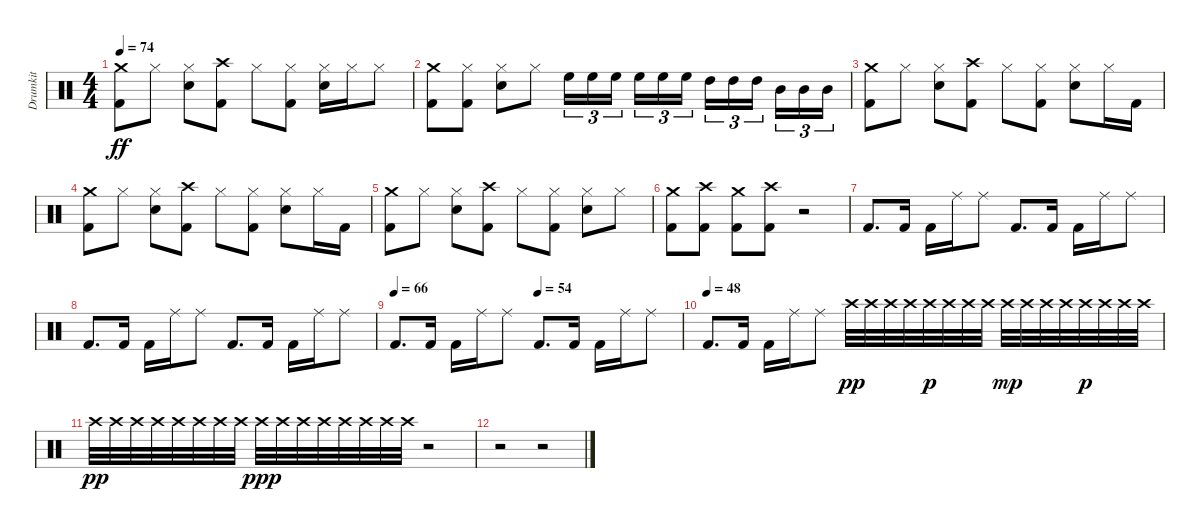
\track ("Drumkit" "Drumkit") {instrument percussion}
\staff {score}
\articulation defaults
\ts (4 4)
\tempo 74
\clef neutral
\ks c
("Crash medium (hit)" "Kick (hit) 2").8{dy ff} "Hi-Hat (closed)".8 ("Hi-Hat (closed)" "Snare (hit) 2").8 ("Crash high (hit)" "Kick (hit) 2").8 "Hi-Hat (closed)".8 ("Hi-Hat (closed)" "Kick (hit) 2").8 ("Hi-Hat (closed)" "Snare (hit) 2").16 "Hi-Hat (closed)".16 "Hi-Hat (closed)".8 |
("Crash medium (hit)" "Kick (hit) 2").8 ("Hi-Hat (closed)" "Kick (hit) 2").8 ("Hi-Hat (closed)" "Snare (hit) 2").8 "Hi-Hat (closed)".8 "High Floor Tom (hit)".16{tu (3 2)} "High Floor Tom (hit)".16{tu (3 2)} "High Floor Tom (hit)".16{tu (3 2)} "High Floor Tom (hit)".16{tu (3 2)} "High Floor Tom (hit)".16{tu (3 2)} "High Floor Tom (hit)".16{tu (3 2)} "High Tom (hit)".16{tu (3 2)} "High Tom (hit)".16{tu (3 2)} "High Tom (hit)".16{tu (3 2)} "Mid Tom (hit)".16{tu (3 2)} "Mid Tom (hit)".16{tu (3 2)} "Mid Tom (hit)".16{tu (3 2)} |
("Crash medium (hit)" "Kick (hit) 2").8 "Hi-Hat (closed)".8 ("Hi-Hat (closed)" "Snare (hit) 2").8 ("Crash high (hit)" "Kick (hit) 2").8 "Hi-Hat (closed)".8 ("Hi-Hat (closed)" "Kick (hit) 2").8 ("Hi-Hat (closed)" "Snare (hit) 2").8 "Hi-Hat (closed)".16 "Kick (hit) 2".16 |
("Crash medium (hit)" "Kick (hit) 2").8 "Hi-Hat (closed)".8 ("Hi-Hat (closed)" "Snare (hit) 2").8 ("Crash high (hit)" "Kick (hit) 2").8 "Hi-Hat (closed)".8 ("Hi-Hat (closed)" "Kick (hit) 2").8 ("Hi-Hat (closed)" "Snare (hit) 2").8 "Hi-Hat (closed)".16 "Kick (hit) 2".16 |
("Crash medium (hit)" "Kick (hit) 2").8 "Hi-Hat (closed)".8 ("Hi-Hat (closed)" "Snare (hit) 2").8 ("Crash high (hit)" "Kick (hit) 2").8 "Hi-Hat (closed)".8 ("Hi-Hat (closed)" "Kick (hit) 2").8 ("Hi-Hat (closed)" "Snare (hit) 2").8 "Hi-Hat (closed)".8 |
("Crash medium (hit)" "Kick (hit) 2").8 ("Crash high (hit)" "Kick (hit) 2").8 ("Crash medium (hit)" "Kick (hit) 2").8 ("Crash high (hit)" "Kick (hit) 2").8 r.2 |
"Kick (hit) 2".8{d} "Kick (hit) 2".16 "Kick (hit) 2".16 "Ride (middle)".16 "Ride (middle)".8 "Kick (hit) 2".8{d} "Kick (hit) 2".16 "Kick (hit) 2".16 "Ride (middle)".16 "Ride (middle)".8 |
"Kick (hit) 2".8{d} "Kick (hit) 2".16 "Kick (hit) 2".16 "Ride (middle)".16 "Ride (middle)".8 "Kick (hit) 2".8{d} "Kick (hit) 2".16 "Kick (hit) 2".16 "Ride (middle)".16 "Ride (middle)".8 |
\tempo 66
\tempo (54 0.5)
"Kick (hit) 2".8{d} "Kick (hit) 2".16 "Kick (hit) 2".16 "Ride (middle)".16 "Ride (middle)".8 "Kick (hit) 2".8{d} "Kick (hit) 2".16 "Kick (hit) 2".16 "Ride (middle)".16 "Ride (middle)".8 |
\tempo (48)
"Kick (hit) 2".8{d} "Kick (hit) 2".16 "Kick (hit) 2".16 "Ride (middle)".16 "Ride (middle)".8 "Crash high (hit)".32{dy pp} "Crash high (hit)".32 "Crash high (hit)".32 "Crash high (hit)".32 "Crash high (hit)".32{dy p} "Crash high (hit)".32 "Crash high (hit)".32 "Crash high (hit)".32 "Crash high (hit)".32{dy mp} "Crash high (hit)".32 "Crash high (hit)".32 "Crash high (hit)".32 "Crash high (hit)".32{dy p} "Crash high (hit)".32 "Crash high (hit)".32 "Crash high (hit)".32 |
"Crash high (hit)".32{dy pp} "Crash high (hit)".32 "Crash high (hit)".32 "Crash high (hit)".32 "Crash high (hit)".32 "Crash high (hit)".32 "Crash high (hit)".32 "Crash high (hit)".32 "Crash high (hit)".32{dy ppp} "Crash high (hit)".32 "Crash high (hit)".32 "Crash high (hit)".32 "Crash high (hit)".32 "Crash high (hit)".32 "Crash high (hit)".32 "Crash high (hit)".32 r.2 |
r.2 r.2
